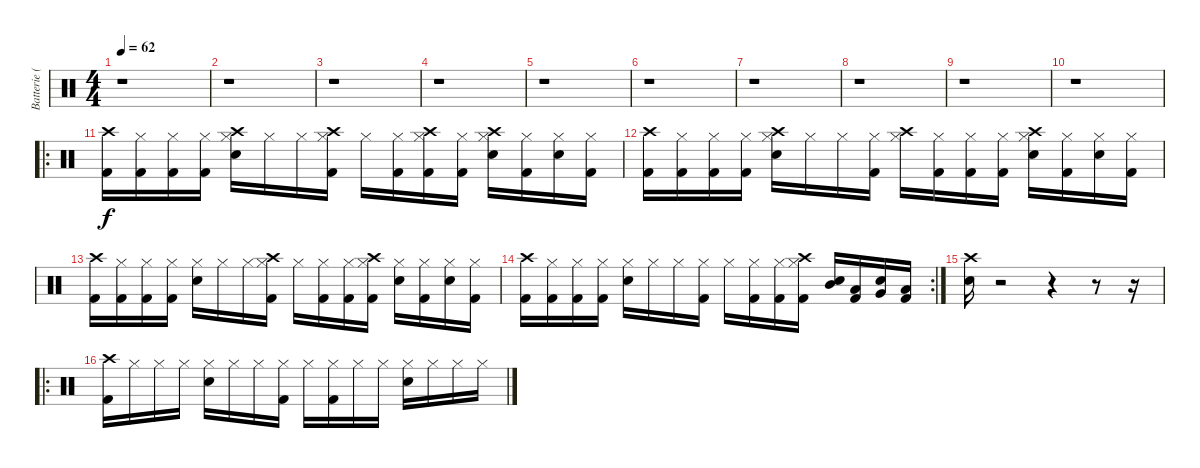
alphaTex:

\track ("Batterie (RV)" "Batterie (") {instrument percussion}
\staff {score}
\articulation defaults
\ts (4 4)
\tempo 62
\clef neutral
\ks c
r.1{dy f} |
r.1 |
r.1 |
r.1 |
r.1 |
r.1 |
r.1 |
r.1 |
r.1 |
r.1 |
\ro
("Kick (hit) 2" "Crash high (hit)").16 ("Kick (hit) 2" "Hi-Hat (closed)").16 ("Kick (hit) 2" "Hi-Hat (closed)").16 ("Kick (hit) 2" "Hi-Hat (closed)").16 ("Snare (hit) 2" "Crash high (hit)" "Hi-Hat (closed)").16 "Hi-Hat (closed)".16 "Hi-Hat (closed)".16 ("Kick (hit) 2" "Crash high (hit)" "Hi-Hat (closed)").16 "Hi-Hat (closed)".16 ("Kick (hit) 2" "Hi-Hat (closed)").16 ("Kick (hit) 2" "Crash high (hit)" "Hi-Hat (closed)").16 ("Kick (hit) 2" "Hi-Hat (closed)").16 ("Snare (hit) 2" "Crash high (hit)" "Hi-Hat (closed)").16 ("Kick (hit) 2" "Hi-Hat (closed)").16 ("Snare (hit) 2" "Hi-Hat (closed)").16 ("Kick (hit) 2" "Hi-Hat (closed)").16 |
("Kick (hit) 2" "Crash high (hit)").16 ("Kick (hit) 2" "Hi-Hat (closed)").16 ("Kick (hit) 2" "Hi-Hat (closed)").16 ("Kick (hit) 2" "Hi-Hat (closed)").16 ("Snare (hit) 2" "Crash high (hit)" "Hi-Hat (closed)").16 "Hi-Hat (closed)".16 "Hi-Hat (closed)".16 ("Kick (hit) 2" "Hi-Hat (closed)").16 ("Crash high (hit)" "Hi-Hat (closed)").16 ("Kick (hit) 2" "Hi-Hat (closed)").16 ("Kick (hit) 2" "Hi-Hat (closed)").16 ("Kick (hit) 2" "Hi-Hat (closed)").16 ("Snare (hit) 2" "Crash high (hit)" "Hi-Hat (closed)").16 ("Kick (hit) 2" "Hi-Hat (closed)").16 ("Snare (hit) 2" "Hi-Hat (closed)").16 ("Kick (hit) 2" "Hi-Hat (closed)").16 |
("Kick (hit) 2" "Crash high (hit)").16 ("Kick (hit) 2" "Hi-Hat (closed)").16 ("Kick (hit) 2" "Hi-Hat (closed)").16 ("Kick (hit) 2" "Hi-Hat (closed)").16 ("Snare (hit) 2" "Hi-Hat (closed)").16 "Hi-Hat (closed)".16 "Hi-Hat (closed)".16 ("Kick (hit) 2" "Crash high (hit)" "Hi-Hat (closed)").16 "Hi-Hat (closed)".16 ("Kick (hit) 2" "Hi-Hat (closed)").16 ("Kick (hit) 2" "Hi-Hat (closed)").16 ("Kick (hit) 2" "Crash high (hit)" "Hi-Hat (closed)").16 ("Snare (hit) 2" "Hi-Hat (closed)").16 ("Kick (hit) 2" "Hi-Hat (closed)").16 ("Snare (hit) 2" "Hi-Hat (closed)").16 ("Kick (hit) 2" "Hi-Hat (closed)").16 |
\rc 2
("Kick (hit) 2" "Crash high (hit)").16 ("Kick (hit) 2" "Hi-Hat (closed)").16 ("Kick (hit) 2" "Hi-Hat (closed)").16 ("Kick (hit) 2" "Hi-Hat (closed)").16 ("Snare (hit) 2" "Hi-Hat (closed)").16 "Hi-Hat (closed)".16 "Hi-Hat (closed)".16 ("Kick (hit) 2" "Hi-Hat (closed)").16 "Hi-Hat (closed)".16 ("Kick (hit) 2" "Hi-Hat (closed)").16 ("Kick (hit) 2" "Hi-Hat (closed)").16 ("Kick (hit) 2" "Crash high (hit)" "Hi-Hat (closed)").16 ("Snare (hit) 2" "Mid Tom (hit)").16 ("Kick (hit) 2" "Low Tom (hit)").16 ("Snare (hit) 2" "Very Low Tom (hit)").16 ("Kick (hit) 2" "Low Floor Tom (hit)").16 |
("Snare (hit) 2" "Crash high (hit)").16 r.2 r.4 r.8 r.16 |
\ro
("Kick (hit) 2" "Crash high (hit)").16 "Hi-Hat (closed)".16 "Hi-Hat (closed)".16 "Hi-Hat (closed)".16 ("Snare (hit) 2" "Hi-Hat (closed)").16 "Hi-Hat (closed)".16 "Hi-Hat (closed)".16 ("Kick (hit) 2" "Hi-Hat (closed)").16 "Hi-Hat (closed)".16 ("Kick (hit) 2" "Hi-Hat (closed)").16 "Hi-Hat (closed)".16 "Hi-Hat (closed)".16 ("Snare (hit) 2" "Hi-Hat (closed)").16 "Hi-Hat (closed)".16 "Hi-Hat (closed)".16 "Hi-Hat (closed)".16
